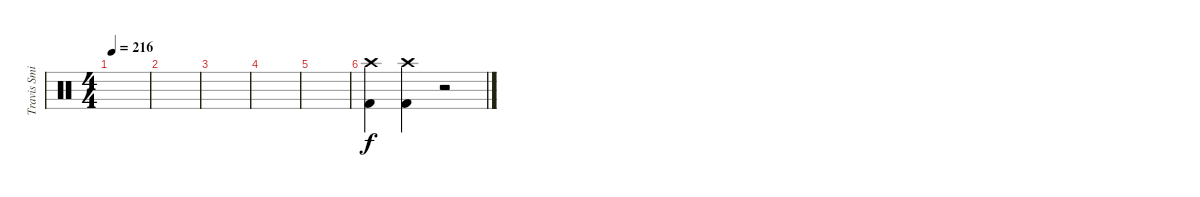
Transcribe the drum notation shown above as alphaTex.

\track ("Travis Smith (Drums)" "Travis Smi") {instrument percussion}
\staff {score}
\articulation defaults
\ts (4 4)
\tempo 216
\clef neutral
\ks c
|
|
|
|
|
("Crash high (hit)" "Kick (hit) 2").4 ("Crash high (hit)" "Kick (hit) 2").4 r.2
